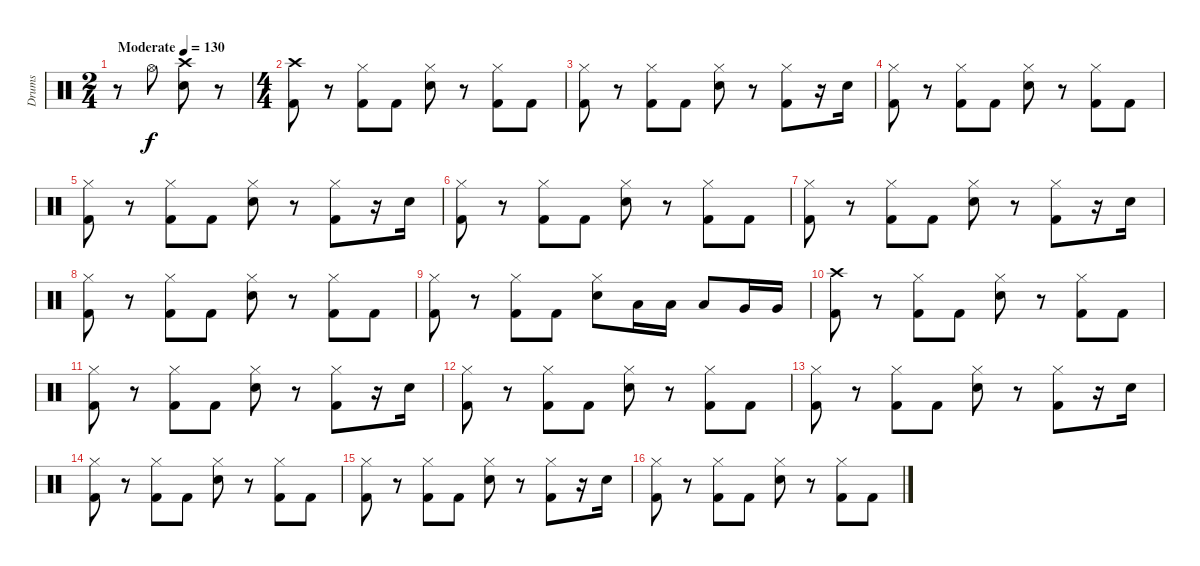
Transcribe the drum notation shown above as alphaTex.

\track ("Drums" "Drums") {instrument percussion}
\staff {score}
\articulation defaults
\ts (2 4)
\tempo (130 "Moderate")
\clef neutral
\ks c
r.8{dy f} "Hi-Hat (open)".8 ("Crash high (hit)" "Electric Snare (hit)").8 r.8 |
\ts (4 4)
("Crash high (hit)" "Kick (hit) 2").8 r.8 ("Hi-Hat (closed)" "Kick (hit) 2").8 "Kick (hit) 2".8 ("Hi-Hat (closed)" "Electric Snare (hit)").8 r.8 ("Hi-Hat (closed)" "Kick (hit) 2").8 "Kick (hit) 2".8 |
("Hi-Hat (closed)" "Kick (hit) 2").8 r.8 ("Hi-Hat (closed)" "Kick (hit) 2").8 "Kick (hit) 2".8 ("Hi-Hat (closed)" "Electric Snare (hit)").8 r.8 ("Hi-Hat (closed)" "Kick (hit) 2").8 r.16 "Electric Snare (hit)".16 |
("Hi-Hat (closed)" "Kick (hit) 2").8 r.8 ("Hi-Hat (closed)" "Kick (hit) 2").8 "Kick (hit) 2".8 ("Hi-Hat (closed)" "Electric Snare (hit)").8 r.8 ("Hi-Hat (closed)" "Kick (hit) 2").8 "Kick (hit) 2".8 |
("Hi-Hat (closed)" "Kick (hit) 2").8 r.8 ("Hi-Hat (closed)" "Kick (hit) 2").8 "Kick (hit) 2".8 ("Hi-Hat (closed)" "Electric Snare (hit)").8 r.8 ("Hi-Hat (closed)" "Kick (hit) 2").8 r.16 "Electric Snare (hit)".16 |
("Hi-Hat (closed)" "Kick (hit) 2").8 r.8 ("Hi-Hat (closed)" "Kick (hit) 2").8 "Kick (hit) 2".8 ("Hi-Hat (closed)" "Electric Snare (hit)").8 r.8 ("Hi-Hat (closed)" "Kick (hit) 2").8 "Kick (hit) 2".8 |
("Hi-Hat (closed)" "Kick (hit) 2").8 r.8 ("Hi-Hat (closed)" "Kick (hit) 2").8 "Kick (hit) 2".8 ("Hi-Hat (closed)" "Electric Snare (hit)").8 r.8 ("Hi-Hat (closed)" "Kick (hit) 2").8 r.16 "Electric Snare (hit)".16 |
("Hi-Hat (closed)" "Kick (hit) 2").8 r.8 ("Hi-Hat (closed)" "Kick (hit) 2").8 "Kick (hit) 2".8 ("Hi-Hat (closed)" "Electric Snare (hit)").8 r.8 ("Hi-Hat (closed)" "Kick (hit) 2").8 "Kick (hit) 2".8 |
("Hi-Hat (closed)" "Kick (hit) 2").8 r.8 ("Hi-Hat (closed)" "Kick (hit) 2").8 "Kick (hit) 2".8 ("Hi-Hat (closed)" "Electric Snare (hit)").8 "Low Tom (hit)".16 "Low Tom (hit)".16 "Low Tom (hit)".8 "Very Low Tom (hit)".16 "Very Low Tom (hit)".16 |
("Crash high (hit)" "Kick (hit) 2").8 r.8 ("Hi-Hat (closed)" "Kick (hit) 2").8 "Kick (hit) 2".8 ("Hi-Hat (closed)" "Electric Snare (hit)").8 r.8 ("Hi-Hat (closed)" "Kick (hit) 2").8 "Kick (hit) 2".8 |
("Hi-Hat (closed)" "Kick (hit) 2").8 r.8 ("Hi-Hat (closed)" "Kick (hit) 2").8 "Kick (hit) 2".8 ("Hi-Hat (closed)" "Electric Snare (hit)").8 r.8 ("Hi-Hat (closed)" "Kick (hit) 2").8 r.16 "Electric Snare (hit)".16 |
("Hi-Hat (closed)" "Kick (hit) 2").8 r.8 ("Hi-Hat (closed)" "Kick (hit) 2").8 "Kick (hit) 2".8 ("Hi-Hat (closed)" "Electric Snare (hit)").8 r.8 ("Hi-Hat (closed)" "Kick (hit) 2").8 "Kick (hit) 2".8 |
("Hi-Hat (closed)" "Kick (hit) 2").8 r.8 ("Hi-Hat (closed)" "Kick (hit) 2").8 "Kick (hit) 2".8 ("Hi-Hat (closed)" "Electric Snare (hit)").8 r.8 ("Hi-Hat (closed)" "Kick (hit) 2").8 r.16 "Electric Snare (hit)".16 |
("Hi-Hat (closed)" "Kick (hit) 2").8 r.8 ("Hi-Hat (closed)" "Kick (hit) 2").8 "Kick (hit) 2".8 ("Hi-Hat (closed)" "Electric Snare (hit)").8 r.8 ("Hi-Hat (closed)" "Kick (hit) 2").8 "Kick (hit) 2".8 |
("Hi-Hat (closed)" "Kick (hit) 2").8 r.8 ("Hi-Hat (closed)" "Kick (hit) 2").8 "Kick (hit) 2".8 ("Hi-Hat (closed)" "Electric Snare (hit)").8 r.8 ("Hi-Hat (closed)" "Kick (hit) 2").8 r.16 "Electric Snare (hit)".16 |
("Hi-Hat (closed)" "Kick (hit) 2").8 r.8 ("Hi-Hat (closed)" "Kick (hit) 2").8 "Kick (hit) 2".8 ("Hi-Hat (closed)" "Electric Snare (hit)").8 r.8 ("Hi-Hat (closed)" "Kick (hit) 2").8 "Kick (hit) 2".8
